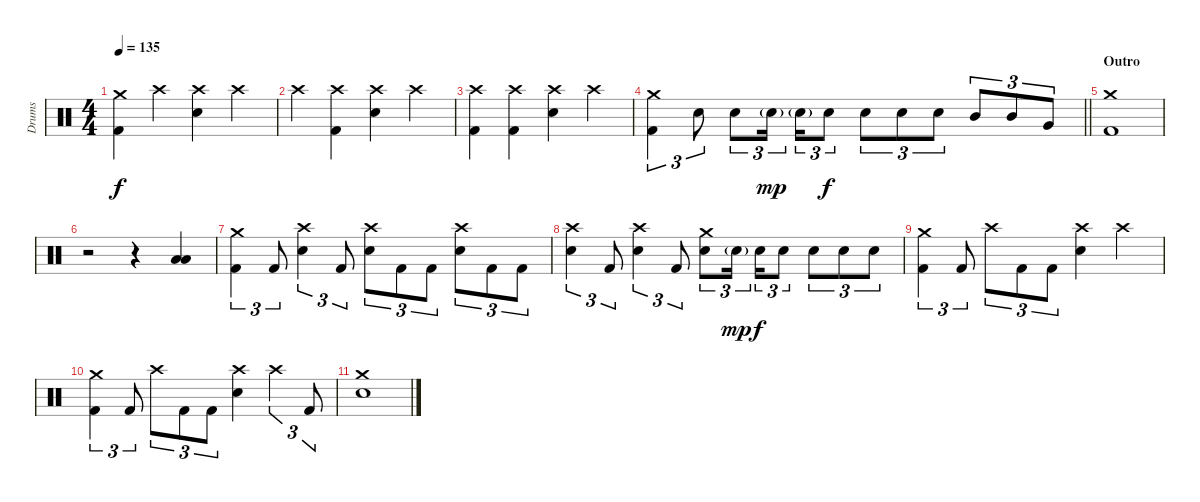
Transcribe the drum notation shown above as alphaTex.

\track ("Drums" "Drums") {instrument percussion}
\staff {score}
\articulation defaults
\ts (4 4)
\tempo 135
\clef neutral
\ks c
("Crash medium (hit)" "Kick (hit) 2").4{dy f} "Crash high (hit)".4 ("Crash high (hit)" "Electric Snare (hit)").4 "Crash high (hit)".4 |
"Crash high (hit)".4 ("Crash high (hit)" "Kick (hit) 2").4 ("Electric Snare (hit)" "Crash high (hit)").4 "Crash high (hit)".4 |
("Crash high (hit)" "Kick (hit) 2").4 ("Crash high (hit)" "Kick (hit) 2").4 ("Electric Snare (hit)" "Crash high (hit)").4 "Crash high (hit)".4 |
\barLineRight lightlight
("Crash medium (hit)" "Kick (hit) 2").4{tu (3 2)} "Electric Snare (hit)".8{tu (3 2)} "Electric Snare (hit)".8{tu (3 2)} "Electric Snare (hit)"{g}.16{tu (3 2) dy mp beam splitsecondary} "Electric Snare (hit)"{g}.16{tu (3 2)} "Electric Snare (hit)".8{tu (3 2) dy f} "Electric Snare (hit)".8{tu (3 2)} "Electric Snare (hit)".8{tu (3 2)} "Electric Snare (hit)".8{tu (3 2)} "Mid Tom (hit)".8{tu (3 2)} "Mid Tom (hit)".8{tu (3 2)} "Very Low Tom (hit)".8{tu (3 2)} |
\section ("" "Outro")
("Crash medium (hit)" "Kick (hit) 2").1 |
r.2 r.4 ("Low Tom (hit)" "Low Floor Tom (hit)").4 |
("Kick (hit) 2" "Crash medium (hit)").4{tu (3 2)} "Kick (hit) 2".8{tu (3 2)} ("Crash high (hit)" "Electric Snare (hit)").4{tu (3 2)} "Kick (hit) 2".8{tu (3 2)} ("Crash high (hit)" "Electric Snare (hit)").8{tu (3 2)} "Kick (hit) 2".8{tu (3 2)} "Kick (hit) 2".8{tu (3 2)} ("Crash high (hit)" "Electric Snare (hit)").8{tu (3 2)} "Kick (hit) 2".8{tu (3 2)} "Kick (hit) 2".8{tu (3 2)} |
("Crash high (hit)" "Electric Snare (hit)").4{tu (3 2)} "Kick (hit) 2".8{tu (3 2)} ("Crash high (hit)" "Electric Snare (hit)").4{tu (3 2)} "Kick (hit) 2".8{tu (3 2)} ("Crash medium (hit)" "Electric Snare (hit)").8{tu (3 2)} "Electric Snare (hit)"{g}.16{tu (3 2) dy mp beam splitsecondary} "Electric Snare (hit)".16{tu (3 2) dy f} "Electric Snare (hit)".8{tu (3 2)} "Electric Snare (hit)".8{tu (3 2)} "Electric Snare (hit)".8{tu (3 2)} "Electric Snare (hit)".8{tu (3 2)} |
("Crash medium (hit)" "Kick (hit) 2").4{tu (3 2)} "Kick (hit) 2".8{tu (3 2)} "Crash high (hit)".8{tu (3 2)} "Kick (hit) 2".8{tu (3 2)} "Kick (hit) 2".8{tu (3 2)} ("Crash high (hit)" "Electric Snare (hit)").4 "Crash high (hit)".4 |
("Crash medium (hit)" "Kick (hit) 2").4{tu (3 2)} "Kick (hit) 2".8{tu (3 2)} "Crash high (hit)".8{tu (3 2)} "Kick (hit) 2".8{tu (3 2)} "Kick (hit) 2".8{tu (3 2)} ("Crash high (hit)" "Electric Snare (hit)").4 "Crash high (hit)".4{tu (3 2)} "Kick (hit) 2".8{tu (3 2)} |
("Electric Snare (hit)" "Crash medium (hit)").1
